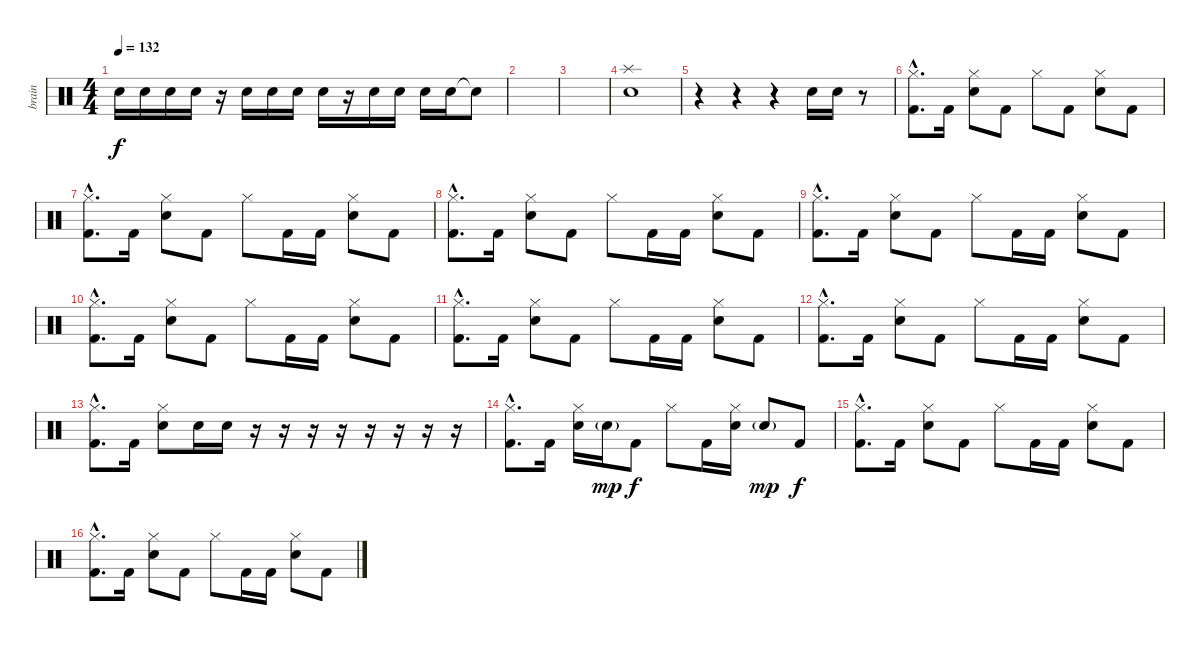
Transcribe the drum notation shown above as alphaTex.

\track ("brain" "brain") {instrument percussion}
\staff {score}
\articulation defaults
\ts (4 4)
\tempo 132
\clef neutral
\ks c "Electric Snare (hit)".16{dy f} "Electric Snare (hit)".16 "Electric Snare (hit)".16 "Electric Snare (hit)".16
r.16 "Electric Snare (hit)".16 "Electric Snare (hit)".16 "Electric Snare (hit)".16 "Electric Snare (hit)".16 r.16 "Electric Snare (hit)".16 "Electric Snare (hit)".16 "Electric Snare (hit)".16 "Electric Snare (hit)".16 "Snare (hit)"{t}.8 |
|
|
("Splash (hit)" "Electric Snare (hit)").1 |
r.4 r.4 r.4 "Electric Snare (hit)".16 "Electric Snare (hit)".16 r.8 |
("Hi-Hat (closed)"{hac} "Kick (hit) 2"{hac}).8{d} "Kick (hit) 2".16 ("Hi-Hat (closed)" "Electric Snare (hit)").8 "Kick (hit) 2".8 "Hi-Hat (closed)".8 "Kick (hit) 2".8 ("Hi-Hat (closed)" "Electric Snare (hit)").8 "Kick (hit) 2".8 |
("Hi-Hat (closed)"{hac} "Kick (hit) 2"{hac}).8{d} "Kick (hit) 2".16 ("Hi-Hat (closed)" "Electric Snare (hit)").8 "Kick (hit) 2".8 "Hi-Hat (closed)".8 "Kick (hit) 2".16 "Kick (hit) 2".16 ("Hi-Hat (closed)" "Electric Snare (hit)").8 "Kick (hit) 2".8 |
("Hi-Hat (closed)"{hac} "Kick (hit) 2"{hac}).8{d} "Kick (hit) 2".16 ("Hi-Hat (closed)" "Electric Snare (hit)").8 "Kick (hit) 2".8 "Hi-Hat (closed)".8 "Kick (hit) 2".16 "Kick (hit) 2".16 ("Hi-Hat (closed)" "Electric Snare (hit)").8 "Kick (hit) 2".8 |
("Hi-Hat (closed)"{hac} "Kick (hit) 2"{hac}).8{d} "Kick (hit) 2".16 ("Hi-Hat (closed)" "Electric Snare (hit)").8 "Kick (hit) 2".8 "Hi-Hat (closed)".8 "Kick (hit) 2".16 "Kick (hit) 2".16 ("Hi-Hat (closed)" "Electric Snare (hit)").8 "Kick (hit) 2".8 |
("Hi-Hat (closed)"{hac} "Kick (hit) 2"{hac}).8{d} "Kick (hit) 2".16 ("Hi-Hat (closed)" "Electric Snare (hit)").8 "Kick (hit) 2".8 "Hi-Hat (closed)".8 "Kick (hit) 2".16 "Kick (hit) 2".16 ("Hi-Hat (closed)" "Electric Snare (hit)").8 "Kick (hit) 2".8 |
("Hi-Hat (closed)"{hac} "Kick (hit) 2"{hac}).8{d} "Kick (hit) 2".16 ("Hi-Hat (closed)" "Electric Snare (hit)").8 "Kick (hit) 2".8 "Hi-Hat (closed)".8 "Kick (hit) 2".16 "Kick (hit) 2".16 ("Hi-Hat (closed)" "Electric Snare (hit)").8 "Kick (hit) 2".8 |
("Hi-Hat (closed)"{hac} "Kick (hit) 2"{hac}).8{d} "Kick (hit) 2".16 ("Hi-Hat (closed)" "Electric Snare (hit)").8 "Kick (hit) 2".8 "Hi-Hat (closed)".8 "Kick (hit) 2".16 "Kick (hit) 2".16 ("Hi-Hat (closed)" "Electric Snare (hit)").8 "Kick (hit) 2".8 |
("Hi-Hat (closed)"{hac} "Kick (hit) 2"{hac}).8{d} "Kick (hit) 2".16 ("Hi-Hat (closed)" "Electric Snare (hit)").8 "Electric Snare (hit)".16 "Electric Snare (hit)".16 r.16 r.16 r.16 r.16 r.16 r.16 r.16 r.16 |
("Hi-Hat (closed)"{hac} "Kick (hit) 2"{hac}).8{d} "Kick (hit) 2".16 ("Hi-Hat (closed)" "Electric Snare (hit)").16 "Electric Snare (hit)"{g}.16{dy mp} "Kick (hit) 2".8{dy f} "Hi-Hat (closed)".8 "Kick (hit) 2".16 ("Hi-Hat (closed)" "Electric Snare (hit)").16 "Electric Snare (hit)"{g}.8{dy mp} "Kick (hit) 2".8{dy f} |
("Hi-Hat (closed)"{hac} "Kick (hit) 2"{hac}).8{d} "Kick (hit) 2".16 ("Hi-Hat (closed)" "Electric Snare (hit)").8 "Kick (hit) 2".8 "Hi-Hat (closed)".8 "Kick (hit) 2".16 "Kick (hit) 2".16 ("Hi-Hat (closed)" "Electric Snare (hit)").8 "Kick (hit) 2".8 |
("Hi-Hat (closed)"{hac} "Kick (hit) 2"{hac}).8{d} "Kick (hit) 2".16 ("Hi-Hat (closed)" "Electric Snare (hit)").8 "Kick (hit) 2".8 "Hi-Hat (closed)".8 "Kick (hit) 2".16 "Kick (hit) 2".16 ("Hi-Hat (closed)" "Electric Snare (hit)").8 "Kick (hit) 2".8
